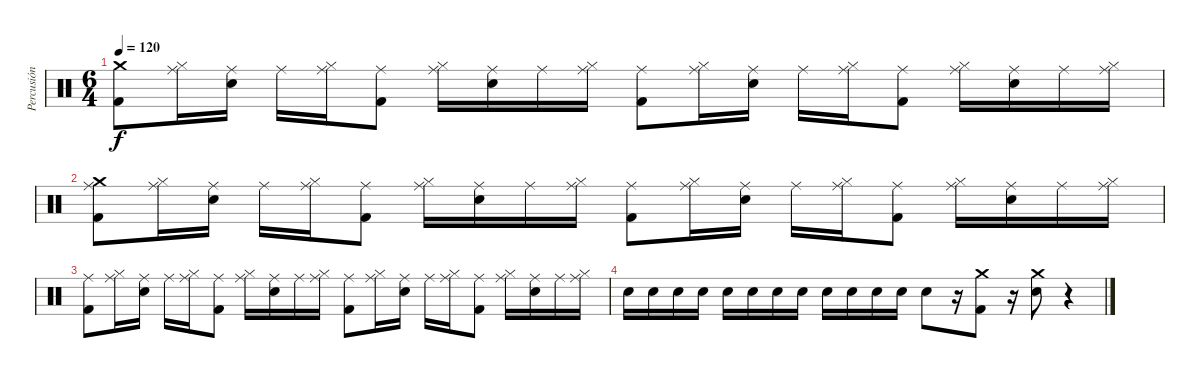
\track ("Percusión" "Percusión") {instrument percussion}
\staff {score}
\articulation defaults
\ts (6 4)
\tempo 120
\clef neutral
\ks c
("Crash medium (hit)" "Kick (hit) 2").8{dy f} ("Ride (middle)" "Hi-Hat (closed)").16 ("Ride (middle)" "Snare (hit) 2").16 "Ride (middle)".16 ("Ride (middle)" "Hi-Hat (closed)").16 ("Ride (middle)" "Kick (hit) 2").8 ("Ride (middle)" "Hi-Hat (closed)").16 ("Ride (middle)" "Snare (hit) 2").16 "Ride (middle)".16 ("Ride (middle)" "Hi-Hat (closed)").16 ("Ride (middle)" "Kick (hit) 2").8 ("Ride (middle)" "Hi-Hat (closed)").16 ("Ride (middle)" "Snare (hit) 2").16 "Ride (middle)".16 ("Ride (middle)" "Hi-Hat (closed)").16 ("Ride (middle)" "Kick (hit) 2").8 ("Ride (middle)" "Hi-Hat (closed)").16 ("Ride (middle)" "Snare (hit) 2").16 "Ride (middle)".16 ("Ride (middle)" "Hi-Hat (closed)").16 |
("Ride (middle)" "Kick (hit) 2" "Crash medium (hit)").8 ("Ride (middle)" "Hi-Hat (closed)").16 ("Ride (middle)" "Snare (hit) 2").16 "Ride (middle)".16 ("Ride (middle)" "Hi-Hat (closed)").16 ("Ride (middle)" "Kick (hit) 2").8 ("Ride (middle)" "Hi-Hat (closed)").16 ("Ride (middle)" "Snare (hit) 2").16 "Ride (middle)".16 ("Ride (middle)" "Hi-Hat (closed)").16 ("Ride (middle)" "Kick (hit) 2").8 ("Ride (middle)" "Hi-Hat (closed)").16 ("Ride (middle)" "Snare (hit) 2").16 "Ride (middle)".16 ("Ride (middle)" "Hi-Hat (closed)").16 ("Ride (middle)" "Kick (hit) 2").8 ("Ride (middle)" "Hi-Hat (closed)").16 ("Ride (middle)" "Snare (hit) 2").16 "Ride (middle)".16 ("Ride (middle)" "Hi-Hat (closed)").16 |
("Ride (middle)" "Kick (hit) 2").8 ("Ride (middle)" "Hi-Hat (closed)").16 ("Ride (middle)" "Snare (hit) 2").16 "Ride (middle)".16 ("Ride (middle)" "Hi-Hat (closed)").16 ("Ride (middle)" "Kick (hit) 2").8 ("Ride (middle)" "Hi-Hat (closed)").16 ("Ride (middle)" "Snare (hit) 2").16 "Ride (middle)".16 ("Ride (middle)" "Hi-Hat (closed)").16 ("Ride (middle)" "Kick (hit) 2").8 ("Ride (middle)" "Hi-Hat (closed)").16 ("Ride (middle)" "Snare (hit) 2").16 "Ride (middle)".16 ("Ride (middle)" "Hi-Hat (closed)").16 ("Ride (middle)" "Kick (hit) 2").8 ("Ride (middle)" "Hi-Hat (closed)").16 ("Ride (middle)" "Snare (hit) 2").16 "Ride (middle)".16 ("Ride (middle)" "Hi-Hat (closed)").16 |
"Snare (hit) 2".16 "Snare (hit) 2".16 "Snare (hit) 2".16 "Snare (hit) 2".16 "Snare (hit) 2".16 "Snare (hit) 2".16 "Snare (hit) 2".16 "Snare (hit) 2".16 "Snare (hit) 2".16 "Snare (hit) 2".16 "Snare (hit) 2".16 "Snare (hit) 2".16 "Snare (hit) 2".8 r.16 ("Crash medium (hit)" "Kick (hit) 2").8 r.16 ("Crash medium (hit)" "Snare (hit) 2").8 r.4
